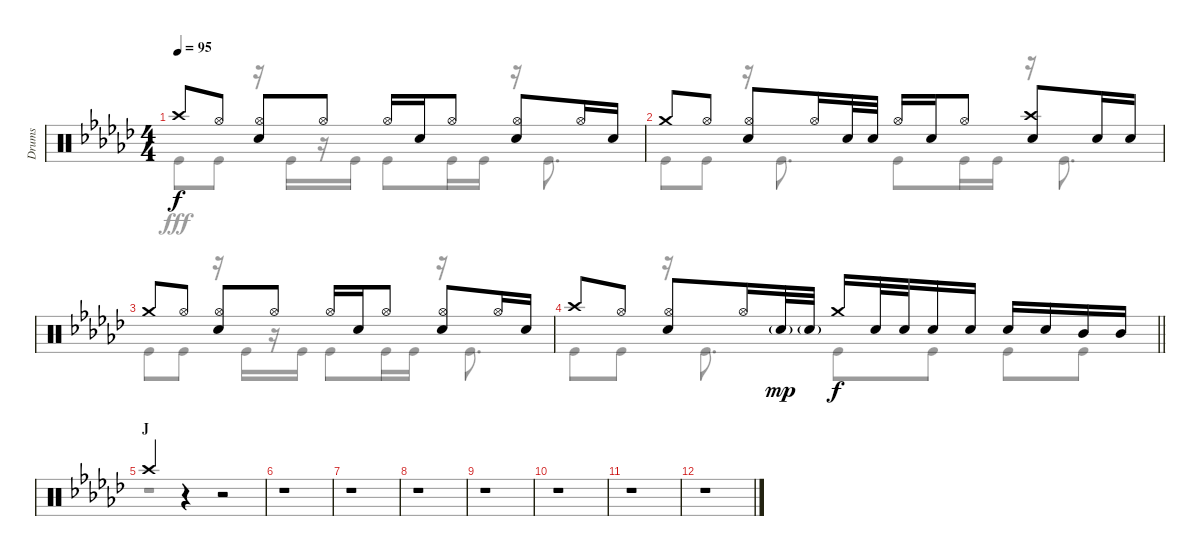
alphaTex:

\track ("Drums" "Drums") {instrument percussion}
\staff {score}
\articulation defaults
\voice
\ts (4 4)
\tempo 95
\clef neutral
\ks gb "Crash high (hit)".8{dy f} "Hi-Hat (open)".8
("Hi-Hat (open)" "Snare (hit) 2").8 "Hi-Hat (open)".8 "Hi-Hat (open)".16 "Snare (hit) 2".16 "Hi-Hat (open)".8 ("Hi-Hat (open)" "Snare (hit) 2").8 "Hi-Hat (open)".16 "Snare (hit) 2".16 |
"Crash medium (hit)".8 "Hi-Hat (open)".8 ("Hi-Hat (open)" "Snare (hit) 2").8 "Hi-Hat (open)".16 "Snare (hit) 2".32 "Snare (hit) 2".32 "Hi-Hat (open)".16 "Snare (hit) 2".16 "Hi-Hat (open)".8 ("Crash high (hit)" "Snare (hit) 2").8 "Snare (hit) 2".16 "Snare (hit) 2".16 |
"Crash medium (hit)".8 "Hi-Hat (open)".8 ("Hi-Hat (open)" "Snare (hit) 2").8 "Hi-Hat (open)".8 "Hi-Hat (open)".16 "Snare (hit) 2".16 "Hi-Hat (open)".8 ("Hi-Hat (open)" "Snare (hit) 2").8 "Hi-Hat (open)".16 "Snare (hit) 2".16 |
\barLineRight lightlight "Crash high (hit)".8 "Hi-Hat (open)".8
("Hi-Hat (open)" "Snare (hit) 2").8 "Hi-Hat (open)".16 "Snare (hit) 2"{g}.32{dy mp} "Snare (hit) 2"{g}.32 "Crash medium (hit)".16{dy f} "Snare (hit) 2".32 "Snare (hit) 2".32 "Snare (hit) 2".16 "Snare (hit) 2".16 "Snare (hit) 2".16 "Snare (hit) 2".16 "Mid Tom (hit)".16 "Mid Tom (hit)".16 |
\section ("" "J")
"Crash high (hit)".4 r.4 r.2 |
r.1 |
r.1 |
r.1 |
r.1 |
r.1 |
r.1 |
r.1
\voice
\clef neutral
\ottava regular
\simile none
\ks gb "Kick (hit)".8{dy fff} "Kick (hit)".8
r.16 "Kick (hit)".16 r.16 "Kick (hit)".16 "Kick (hit)".8 "Kick (hit)".16 "Kick (hit)".16 r.16 "Kick (hit)".8{d} |
"Kick (hit)".8 "Kick (hit)".8 r.16 "Kick (hit)".8{d} "Kick (hit)".8 "Kick (hit)".16 "Kick (hit)".16 r.16 "Kick (hit)".8{d} |
"Kick (hit)".8 "Kick (hit)".8 r.16 "Kick (hit)".16 r.16 "Kick (hit)".16 "Kick (hit)".8 "Kick (hit)".16 "Kick (hit)".16 r.16 "Kick (hit)".8{d} |
\barLineRight lightlight "Kick (hit)".8 "Kick (hit)".8
r.16 "Kick (hit)".8{d} "Kick (hit)".8 "Kick (hit)".8 "Kick (hit)".8 "Kick (hit)".8 |
r.1 |
r.1 |
r.1 |
r.1 |
r.1 |
r.1 |
r.1 |
r.1
